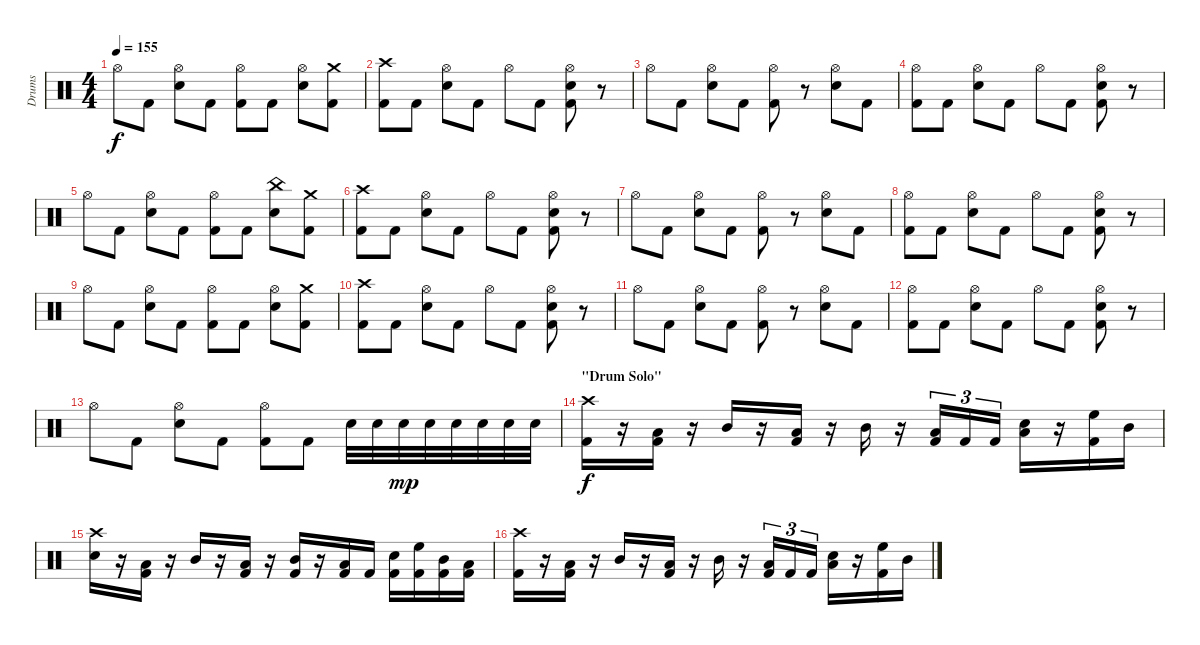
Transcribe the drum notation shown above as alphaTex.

\track ("Drums" "Drums") {instrument percussion}
\staff {score}
\articulation defaults
\ts (4 4)
\tempo 155
\clef neutral
\ks c "Hi-Hat (open)".8{dy f} "Kick (hit) 2".8
("Hi-Hat (open)" "Electric Snare (hit)").8 "Kick (hit) 2".8 ("Hi-Hat (open)" "Kick (hit) 2").8 "Kick (hit) 2".8 ("Hi-Hat (open)" "Electric Snare (hit)").8 ("Crash medium (hit)" "Kick (hit) 2").8 |
("Crash high (hit)" "Kick (hit) 2").8 "Kick (hit) 2".8 ("Hi-Hat (open)" "Electric Snare (hit)").8 "Kick (hit) 2".8 "Hi-Hat (open)".8 "Kick (hit) 2".8 ("Hi-Hat (open)" "Electric Snare (hit)" "Kick (hit) 2").8 r.8 |
"Hi-Hat (open)".8 "Kick (hit) 2".8 ("Hi-Hat (open)" "Electric Snare (hit)").8 "Kick (hit) 2".8 ("Hi-Hat (open)" "Kick (hit) 2").8 r.8 ("Hi-Hat (open)" "Electric Snare (hit)").8 "Kick (hit) 2".8 |
("Hi-Hat (open)" "Kick (hit) 2").8 "Kick (hit) 2".8 ("Hi-Hat (open)" "Electric Snare (hit)").8 "Kick (hit) 2".8 "Hi-Hat (open)".8 "Kick (hit) 2".8 ("Hi-Hat (open)" "Electric Snare (hit)" "Kick (hit) 2").8 r.8 |
"Hi-Hat (open)".8 "Kick (hit) 2".8 ("Hi-Hat (open)" "Electric Snare (hit)").8 "Kick (hit) 2".8 ("Hi-Hat (open)" "Kick (hit) 2").8 "Kick (hit) 2".8 ("China (hit)" "Electric Snare (hit)").8 ("Crash medium (hit)" "Kick (hit) 2").8 |
("Crash high (hit)" "Kick (hit) 2").8 "Kick (hit) 2".8 ("Hi-Hat (open)" "Electric Snare (hit)").8 "Kick (hit) 2".8 "Hi-Hat (open)".8 "Kick (hit) 2".8 ("Hi-Hat (open)" "Electric Snare (hit)" "Kick (hit) 2").8 r.8 |
"Hi-Hat (open)".8 "Kick (hit) 2".8 ("Hi-Hat (open)" "Electric Snare (hit)").8 "Kick (hit) 2".8 ("Hi-Hat (open)" "Kick (hit) 2").8 r.8 ("Hi-Hat (open)" "Electric Snare (hit)").8 "Kick (hit) 2".8 |
("Hi-Hat (open)" "Kick (hit) 2").8 "Kick (hit) 2".8 ("Hi-Hat (open)" "Electric Snare (hit)").8 "Kick (hit) 2".8 "Hi-Hat (open)".8 "Kick (hit) 2".8 ("Hi-Hat (open)" "Electric Snare (hit)" "Kick (hit) 2").8 r.8 |
"Hi-Hat (open)".8 "Kick (hit) 2".8 ("Hi-Hat (open)" "Electric Snare (hit)").8 "Kick (hit) 2".8 ("Hi-Hat (open)" "Kick (hit) 2").8 "Kick (hit) 2".8 ("Hi-Hat (open)" "Electric Snare (hit)").8 ("Crash medium (hit)" "Kick (hit) 2").8 |
("Crash high (hit)" "Kick (hit) 2").8 "Kick (hit) 2".8 ("Hi-Hat (open)" "Electric Snare (hit)").8 "Kick (hit) 2".8 "Hi-Hat (open)".8 "Kick (hit) 2".8 ("Hi-Hat (open)" "Electric Snare (hit)" "Kick (hit) 2").8 r.8 |
"Hi-Hat (open)".8 "Kick (hit) 2".8 ("Hi-Hat (open)" "Electric Snare (hit)").8 "Kick (hit) 2".8 ("Hi-Hat (open)" "Kick (hit) 2").8 r.8 ("Hi-Hat (open)" "Electric Snare (hit)").8 "Kick (hit) 2".8 |
("Hi-Hat (open)" "Kick (hit) 2").8 "Kick (hit) 2".8 ("Hi-Hat (open)" "Electric Snare (hit)").8 "Kick (hit) 2".8 "Hi-Hat (open)".8 "Kick (hit) 2".8 ("Hi-Hat (open)" "Electric Snare (hit)" "Kick (hit) 2").8 r.8 |
"Hi-Hat (open)".8 "Kick (hit) 2".8 ("Hi-Hat (open)" "Electric Snare (hit)").8 "Kick (hit) 2".8 ("Hi-Hat (open)" "Kick (hit) 2").8 "Kick (hit) 2".8 "Electric Snare (hit)".32 "Electric Snare (hit)".32 "Electric Snare (hit)".32{dy mp} "Electric Snare (hit)".32 "Electric Snare (hit)".32 "Electric Snare (hit)".32 "Electric Snare (hit)".32 "Electric Snare (hit)".32 |
\section ("" "\"Drum Solo\"")
("Crash high (hit)" "Kick (hit) 2").16{dy f} r.16 ("Low Tom (hit)" "Kick (hit) 2").16 r.16 "Mid Tom (hit)".16 r.16 ("Low Tom (hit)" "Kick (hit) 2").16 r.16 "Mid Tom (hit)".16 r.16 ("Low Tom (hit)" "Kick (hit) 2").16{tu (3 2)} "Kick (hit) 2".16{tu (3 2)} "Kick (hit) 2".16{tu (3 2)} ("Electric Snare (hit)" "Low Tom (hit)").16 r.16 ("High Floor Tom (hit)" "Kick (hit) 2").16 "Mid Tom (hit)".16 |
("Crash high (hit)" "Electric Snare (hit)").16 r.16 ("Low Tom (hit)" "Kick (hit) 2").16 r.16 "Mid Tom (hit)".16 r.16 ("Low Tom (hit)" "Kick (hit) 2").16 r.16 ("Mid Tom (hit)" "Kick (hit) 2").16 r.16 ("Low Tom (hit)" "Kick (hit) 2").16 "Kick (hit) 2".16 ("Electric Snare (hit)" "Kick (hit) 2").16 ("High Floor Tom (hit)" "Kick (hit) 2").16 ("Mid Tom (hit)" "Kick (hit) 2").16 ("Low Tom (hit)" "Kick (hit) 2").16 |
("Crash high (hit)" "Kick (hit) 2").16 r.16 ("Low Tom (hit)" "Kick (hit) 2").16 r.16 "Mid Tom (hit)".16 r.16 ("Low Tom (hit)" "Kick (hit) 2").16 r.16 "Mid Tom (hit)".16 r.16 ("Low Tom (hit)" "Kick (hit) 2").16{tu (3 2)} "Kick (hit) 2".16{tu (3 2)} "Kick (hit) 2".16{tu (3 2)} ("Electric Snare (hit)" "Low Tom (hit)").16 r.16 ("High Floor Tom (hit)" "Kick (hit) 2").16 "Mid Tom (hit)".16
